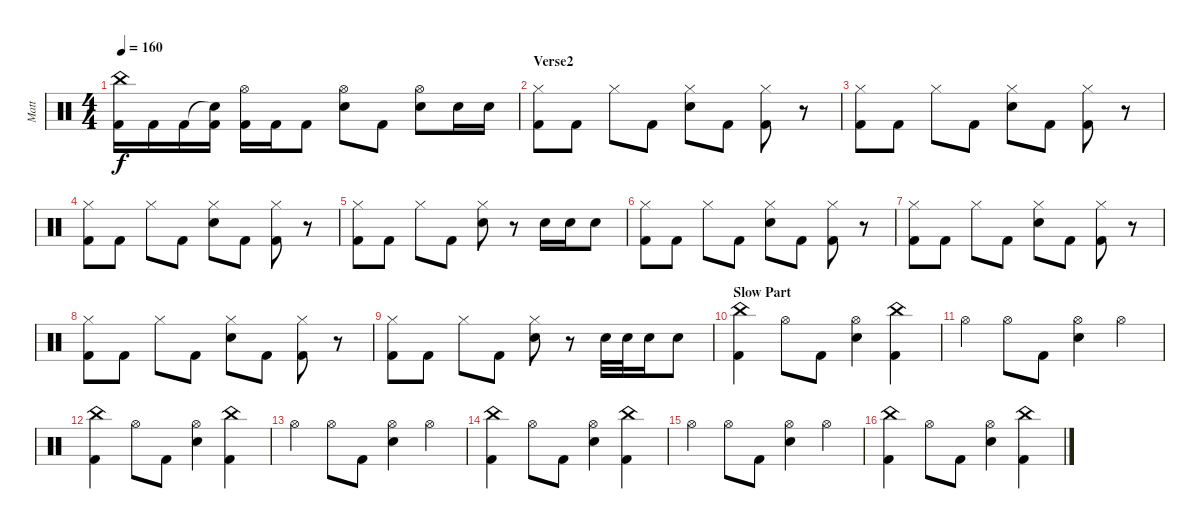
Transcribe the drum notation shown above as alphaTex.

\track ("Matt" "Matt") {instrument percussion}
\staff {score}
\articulation defaults
\ts (4 4)
\tempo 160
\clef neutral
\ks c
("China (hit)" "Kick (hit) 2").16{dy f} "Kick (hit) 2".16 "Kick (hit) 2".16 ("Snare (hit)"{t} "Kick (hit) 2").16 ("Hi-Hat (open)" "Kick (hit) 2").16 "Kick (hit) 2".16 "Kick (hit) 2".8 ("Hi-Hat (open)" "Electric Snare (hit)").8 "Kick (hit) 2".8 ("Hi-Hat (open)" "Electric Snare (hit)").8 "Electric Snare (hit)".16 "Electric Snare (hit)".16 |
\section ("" "Verse2")
("Kick (hit) 2" "Hi-Hat (closed)").8 "Kick (hit) 2".8 "Hi-Hat (closed)".8 "Kick (hit) 2".8 ("Electric Snare (hit)" "Hi-Hat (closed)").8 "Kick (hit) 2".8 ("Kick (hit) 2" "Hi-Hat (closed)").8 r.8 |
("Kick (hit) 2" "Hi-Hat (closed)").8 "Kick (hit) 2".8 "Hi-Hat (closed)".8 "Kick (hit) 2".8 ("Electric Snare (hit)" "Hi-Hat (closed)").8 "Kick (hit) 2".8 ("Kick (hit) 2" "Hi-Hat (closed)").8 r.8 |
("Kick (hit) 2" "Hi-Hat (closed)").8 "Kick (hit) 2".8 "Hi-Hat (closed)".8 "Kick (hit) 2".8 ("Electric Snare (hit)" "Hi-Hat (closed)").8 "Kick (hit) 2".8 ("Kick (hit) 2" "Hi-Hat (closed)").8 r.8 |
("Kick (hit) 2" "Hi-Hat (closed)").8 "Kick (hit) 2".8 "Hi-Hat (closed)".8 "Kick (hit) 2".8 ("Electric Snare (hit)" "Hi-Hat (closed)").8 r.8 "Electric Snare (hit)".16 "Electric Snare (hit)".16 "Electric Snare (hit)".8 |
("Kick (hit) 2" "Hi-Hat (closed)").8 "Kick (hit) 2".8 "Hi-Hat (closed)".8 "Kick (hit) 2".8 ("Electric Snare (hit)" "Hi-Hat (closed)").8 "Kick (hit) 2".8 ("Kick (hit) 2" "Hi-Hat (closed)").8 r.8 |
("Kick (hit) 2" "Hi-Hat (closed)").8 "Kick (hit) 2".8 "Hi-Hat (closed)".8 "Kick (hit) 2".8 ("Electric Snare (hit)" "Hi-Hat (closed)").8 "Kick (hit) 2".8 ("Kick (hit) 2" "Hi-Hat (closed)").8 r.8 |
("Kick (hit) 2" "Hi-Hat (closed)").8 "Kick (hit) 2".8 "Hi-Hat (closed)".8 "Kick (hit) 2".8 ("Electric Snare (hit)" "Hi-Hat (closed)").8 "Kick (hit) 2".8 ("Kick (hit) 2" "Hi-Hat (closed)").8 r.8 |
("Kick (hit) 2" "Hi-Hat (closed)").8 "Kick (hit) 2".8 "Hi-Hat (closed)".8 "Kick (hit) 2".8 ("Electric Snare (hit)" "Hi-Hat (closed)").8 r.8 "Electric Snare (hit)".32 "Electric Snare (hit)".32 "Electric Snare (hit)".16 "Electric Snare (hit)".8 |
\section ("" "Slow Part")
("Kick (hit) 2" "China (hit)").4 "Hi-Hat (open)".8 "Kick (hit) 2".8 ("Electric Snare (hit)" "Hi-Hat (open)").4 ("Kick (hit) 2" "China (hit)").4 |
"Hi-Hat (open)".4 "Hi-Hat (open)".8 "Kick (hit) 2".8 ("Hi-Hat (open)" "Electric Snare (hit)").4 "Hi-Hat (open)".4 |
("Kick (hit) 2" "China (hit)").4 "Hi-Hat (open)".8 "Kick (hit) 2".8 ("Electric Snare (hit)" "Hi-Hat (open)").4 ("Kick (hit) 2" "China (hit)").4 |
"Hi-Hat (open)".4 "Hi-Hat (open)".8 "Kick (hit) 2".8 ("Hi-Hat (open)" "Electric Snare (hit)").4 "Hi-Hat (open)".4 |
("Kick (hit) 2" "China (hit)").4 "Hi-Hat (open)".8 "Kick (hit) 2".8 ("Electric Snare (hit)" "Hi-Hat (open)").4 ("Kick (hit) 2" "China (hit)").4 |
"Hi-Hat (open)".4 "Hi-Hat (open)".8 "Kick (hit) 2".8 ("Hi-Hat (open)" "Electric Snare (hit)").4 "Hi-Hat (open)".4 |
("Kick (hit) 2" "China (hit)").4 "Hi-Hat (open)".8 "Kick (hit) 2".8 ("Electric Snare (hit)" "Hi-Hat (open)").4 ("Kick (hit) 2" "China (hit)").4
